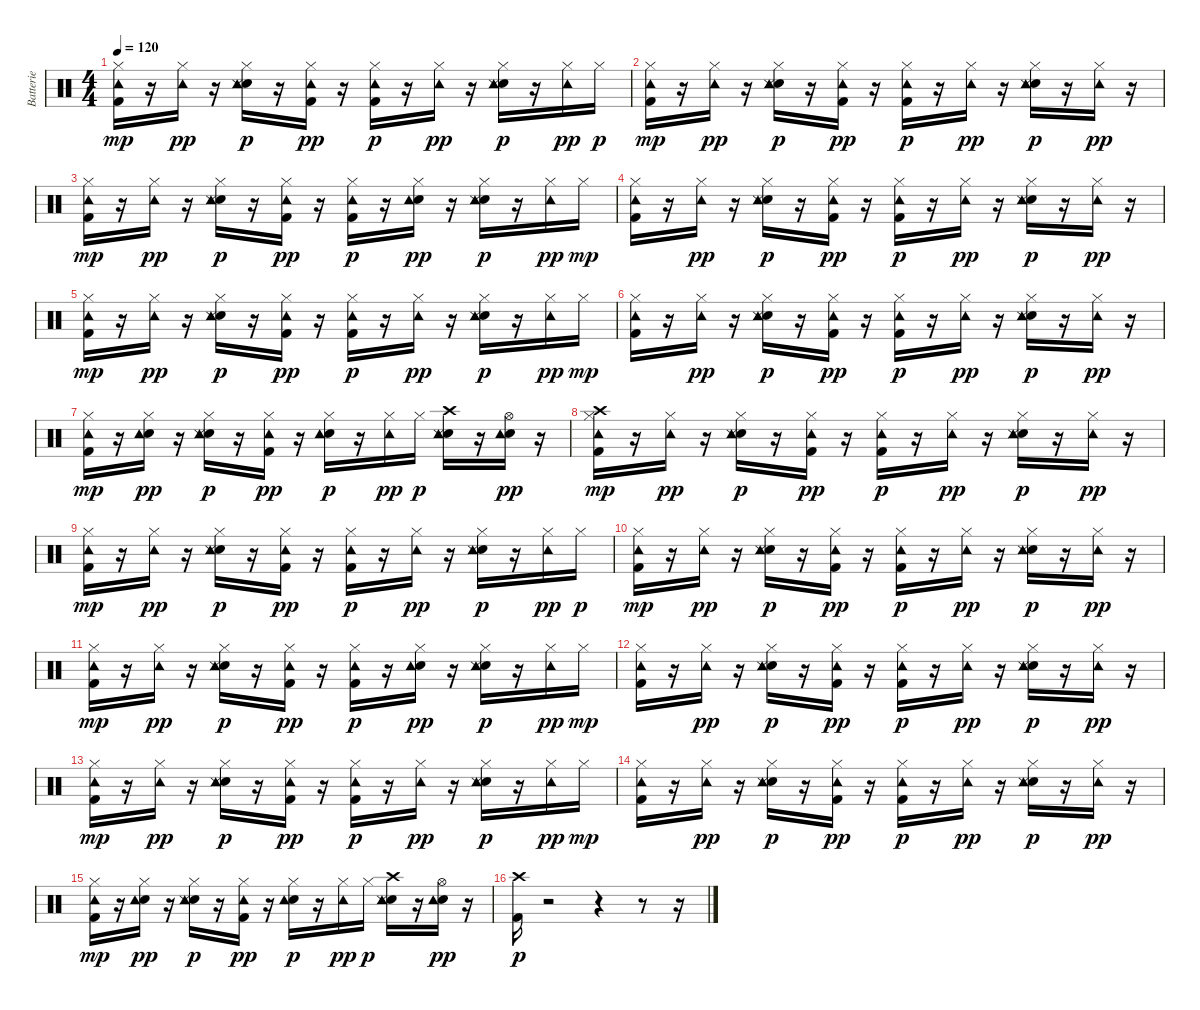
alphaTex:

\track ("Batterie" "Batterie") {instrument percussion}
\staff {score}
\articulation defaults
\ts (4 4)
\tempo 120
\clef neutral
\ks c
("Kick (hit) 2" "Hi-Hat (closed)" "Tambourine (hit)").16{dy mp} r.16 ("Hi-Hat (closed)" "Tambourine (hit)").16{dy pp} r.16 ("Snare (hit) 2" "Hi-Hat (closed)" "Snare (side stick) 3" "Tambourine (hit)").16{dy p} r.16 ("Kick (hit) 2" "Hi-Hat (closed)" "Tambourine (hit)").16{dy pp} r.16 ("Kick (hit) 2" "Hi-Hat (closed)" "Tambourine (hit)").16{dy p} r.16 ("Hi-Hat (closed)" "Tambourine (hit)").16{dy pp} r.16 ("Snare (hit) 2" "Hi-Hat (closed)" "Snare (side stick) 3" "Tambourine (hit)").16{dy p} r.16 ("Hi-Hat (closed)" "Tambourine (hit)").16{dy pp} "Hi-Hat (closed)".16{dy p} |
("Kick (hit) 2" "Hi-Hat (closed)" "Tambourine (hit)").16{dy mp} r.16 ("Hi-Hat (closed)" "Tambourine (hit)").16{dy pp} r.16 ("Snare (hit) 2" "Hi-Hat (closed)" "Snare (side stick) 3" "Tambourine (hit)").16{dy p} r.16 ("Kick (hit) 2" "Hi-Hat (closed)" "Tambourine (hit)").16{dy pp} r.16 ("Kick (hit) 2" "Hi-Hat (closed)" "Tambourine (hit)").16{dy p} r.16 ("Hi-Hat (closed)" "Tambourine (hit)").16{dy pp} r.16 ("Snare (hit) 2" "Hi-Hat (closed)" "Snare (side stick) 3" "Tambourine (hit)").16{dy p} r.16 ("Hi-Hat (closed)" "Tambourine (hit)").16{dy pp} r.16 |
("Kick (hit) 2" "Hi-Hat (closed)" "Tambourine (hit)").16{dy mp} r.16 ("Hi-Hat (closed)" "Tambourine (hit)").16{dy pp} r.16 ("Snare (hit) 2" "Hi-Hat (closed)" "Snare (side stick) 3" "Tambourine (hit)").16{dy p} r.16 ("Kick (hit) 2" "Hi-Hat (closed)" "Tambourine (hit)").16{dy pp} r.16 ("Kick (hit) 2" "Hi-Hat (closed)" "Tambourine (hit)").16{dy p} r.16 ("Snare (hit) 2" "Hi-Hat (closed)" "Tambourine (hit)").16{dy pp} r.16 ("Snare (hit) 2" "Hi-Hat (closed)" "Snare (side stick) 3" "Tambourine (hit)").16{dy p} r.16 ("Hi-Hat (closed)" "Tambourine (hit)").16{dy pp} "Hi-Hat (closed)".16{dy mp} |
("Kick (hit) 2" "Hi-Hat (closed)" "Tambourine (hit)").16 r.16 ("Hi-Hat (closed)" "Tambourine (hit)").16{dy pp} r.16 ("Snare (hit) 2" "Hi-Hat (closed)" "Snare (side stick) 3" "Tambourine (hit)").16{dy p} r.16 ("Kick (hit) 2" "Hi-Hat (closed)" "Tambourine (hit)").16{dy pp} r.16 ("Kick (hit) 2" "Hi-Hat (closed)" "Tambourine (hit)").16{dy p} r.16 ("Hi-Hat (closed)" "Tambourine (hit)").16{dy pp} r.16 ("Snare (hit) 2" "Hi-Hat (closed)" "Snare (side stick) 3" "Tambourine (hit)").16{dy p} r.16 ("Hi-Hat (closed)" "Tambourine (hit)").16{dy pp} r.16 |
("Kick (hit) 2" "Hi-Hat (closed)" "Tambourine (hit)").16{dy mp} r.16 ("Hi-Hat (closed)" "Tambourine (hit)").16{dy pp} r.16 ("Snare (hit) 2" "Hi-Hat (closed)" "Snare (side stick) 3" "Tambourine (hit)").16{dy p} r.16 ("Kick (hit) 2" "Hi-Hat (closed)" "Tambourine (hit)").16{dy pp} r.16 ("Kick (hit) 2" "Hi-Hat (closed)" "Tambourine (hit)").16{dy p} r.16 ("Hi-Hat (closed)" "Tambourine (hit)").16{dy pp} r.16 ("Snare (hit) 2" "Hi-Hat (closed)" "Snare (side stick) 3" "Tambourine (hit)").16{dy p} r.16 ("Hi-Hat (closed)" "Tambourine (hit)").16{dy pp} "Hi-Hat (closed)".16{dy mp} |
("Kick (hit) 2" "Hi-Hat (closed)" "Tambourine (hit)").16 r.16 ("Hi-Hat (closed)" "Tambourine (hit)").16{dy pp} r.16 ("Snare (hit) 2" "Hi-Hat (closed)" "Snare (side stick) 3" "Tambourine (hit)").16{dy p} r.16 ("Kick (hit) 2" "Hi-Hat (closed)" "Tambourine (hit)").16{dy pp} r.16 ("Kick (hit) 2" "Hi-Hat (closed)" "Tambourine (hit)").16{dy p} r.16 ("Hi-Hat (closed)" "Tambourine (hit)").16{dy pp} r.16 ("Snare (hit) 2" "Hi-Hat (closed)" "Snare (side stick) 3" "Tambourine (hit)").16{dy p} r.16 ("Hi-Hat (closed)" "Tambourine (hit)").16{dy pp} r.16 |
("Kick (hit) 2" "Hi-Hat (closed)" "Tambourine (hit)").16{dy mp} r.16 ("Snare (hit) 2" "Hi-Hat (closed)" "Tambourine (hit)").16{dy pp} r.16 ("Snare (hit) 2" "Hi-Hat (closed)" "Snare (side stick) 3" "Tambourine (hit)").16{dy p} r.16 ("Kick (hit) 2" "Hi-Hat (closed)" "Tambourine (hit)").16{dy pp} r.16 ("Snare (hit) 2" "Hi-Hat (closed)" "Tambourine (hit)").16{dy p} r.16 ("Hi-Hat (closed)" "Tambourine (hit)").16{dy pp} "Hi-Hat (closed)".16{dy p} ("Snare (hit) 2" "Crash high (hit)" "Snare (side stick) 3" "Tambourine (hit)").16 r.16 ("Snare (hit) 2" "Hi-Hat (open)" "Tambourine (hit)").16{dy pp} r.16 |
("Kick (hit) 2" "Hi-Hat (closed)" "Crash high (hit)" "Tambourine (hit)").16{dy mp} r.16 ("Hi-Hat (closed)" "Tambourine (hit)").16{dy pp} r.16 ("Snare (hit) 2" "Hi-Hat (closed)" "Snare (side stick) 3" "Tambourine (hit)").16{dy p} r.16 ("Kick (hit) 2" "Hi-Hat (closed)" "Tambourine (hit)").16{dy pp} r.16 ("Kick (hit) 2" "Hi-Hat (closed)" "Tambourine (hit)").16{dy p} r.16 ("Hi-Hat (closed)" "Tambourine (hit)").16{dy pp} r.16 ("Snare (hit) 2" "Hi-Hat (closed)" "Snare (side stick) 3" "Tambourine (hit)").16{dy p} r.16 ("Hi-Hat (closed)" "Tambourine (hit)").16{dy pp} r.16 |
("Kick (hit) 2" "Hi-Hat (closed)" "Tambourine (hit)").16{dy mp} r.16 ("Hi-Hat (closed)" "Tambourine (hit)").16{dy pp} r.16 ("Snare (hit) 2" "Hi-Hat (closed)" "Snare (side stick) 3" "Tambourine (hit)").16{dy p} r.16 ("Kick (hit) 2" "Hi-Hat (closed)" "Tambourine (hit)").16{dy pp} r.16 ("Kick (hit) 2" "Hi-Hat (closed)" "Tambourine (hit)").16{dy p} r.16 ("Hi-Hat (closed)" "Tambourine (hit)").16{dy pp} r.16 ("Snare (hit) 2" "Hi-Hat (closed)" "Snare (side stick) 3" "Tambourine (hit)").16{dy p} r.16 ("Hi-Hat (closed)" "Tambourine (hit)").16{dy pp} "Hi-Hat (closed)".16{dy p} |
("Kick (hit) 2" "Hi-Hat (closed)" "Tambourine (hit)").16{dy mp} r.16 ("Hi-Hat (closed)" "Tambourine (hit)").16{dy pp} r.16 ("Snare (hit) 2" "Hi-Hat (closed)" "Snare (side stick) 3" "Tambourine (hit)").16{dy p} r.16 ("Kick (hit) 2" "Hi-Hat (closed)" "Tambourine (hit)").16{dy pp} r.16 ("Kick (hit) 2" "Hi-Hat (closed)" "Tambourine (hit)").16{dy p} r.16 ("Hi-Hat (closed)" "Tambourine (hit)").16{dy pp} r.16 ("Snare (hit) 2" "Hi-Hat (closed)" "Snare (side stick) 3" "Tambourine (hit)").16{dy p} r.16 ("Hi-Hat (closed)" "Tambourine (hit)").16{dy pp} r.16 |
("Kick (hit) 2" "Hi-Hat (closed)" "Tambourine (hit)").16{dy mp} r.16 ("Hi-Hat (closed)" "Tambourine (hit)").16{dy pp} r.16 ("Snare (hit) 2" "Hi-Hat (closed)" "Snare (side stick) 3" "Tambourine (hit)").16{dy p} r.16 ("Kick (hit) 2" "Hi-Hat (closed)" "Tambourine (hit)").16{dy pp} r.16 ("Kick (hit) 2" "Hi-Hat (closed)" "Tambourine (hit)").16{dy p} r.16 ("Snare (hit) 2" "Hi-Hat (closed)" "Tambourine (hit)").16{dy pp} r.16 ("Snare (hit) 2" "Hi-Hat (closed)" "Snare (side stick) 3" "Tambourine (hit)").16{dy p} r.16 ("Hi-Hat (closed)" "Tambourine (hit)").16{dy pp} "Hi-Hat (closed)".16{dy mp} |
("Kick (hit) 2" "Hi-Hat (closed)" "Tambourine (hit)").16 r.16 ("Hi-Hat (closed)" "Tambourine (hit)").16{dy pp} r.16 ("Snare (hit) 2" "Hi-Hat (closed)" "Snare (side stick) 3" "Tambourine (hit)").16{dy p} r.16 ("Kick (hit) 2" "Hi-Hat (closed)" "Tambourine (hit)").16{dy pp} r.16 ("Kick (hit) 2" "Hi-Hat (closed)" "Tambourine (hit)").16{dy p} r.16 ("Hi-Hat (closed)" "Tambourine (hit)").16{dy pp} r.16 ("Snare (hit) 2" "Hi-Hat (closed)" "Snare (side stick) 3" "Tambourine (hit)").16{dy p} r.16 ("Hi-Hat (closed)" "Tambourine (hit)").16{dy pp} r.16 |
("Kick (hit) 2" "Hi-Hat (closed)" "Tambourine (hit)").16{dy mp} r.16 ("Hi-Hat (closed)" "Tambourine (hit)").16{dy pp} r.16 ("Snare (hit) 2" "Hi-Hat (closed)" "Snare (side stick) 3" "Tambourine (hit)").16{dy p} r.16 ("Kick (hit) 2" "Hi-Hat (closed)" "Tambourine (hit)").16{dy pp} r.16 ("Kick (hit) 2" "Hi-Hat (closed)" "Tambourine (hit)").16{dy p} r.16 ("Hi-Hat (closed)" "Tambourine (hit)").16{dy pp} r.16 ("Snare (hit) 2" "Hi-Hat (closed)" "Snare (side stick) 3" "Tambourine (hit)").16{dy p} r.16 ("Hi-Hat (closed)" "Tambourine (hit)").16{dy pp} "Hi-Hat (closed)".16{dy mp} |
("Kick (hit) 2" "Hi-Hat (closed)" "Tambourine (hit)").16 r.16 ("Hi-Hat (closed)" "Tambourine (hit)").16{dy pp} r.16 ("Snare (hit) 2" "Hi-Hat (closed)" "Snare (side stick) 3" "Tambourine (hit)").16{dy p} r.16 ("Kick (hit) 2" "Hi-Hat (closed)" "Tambourine (hit)").16{dy pp} r.16 ("Kick (hit) 2" "Hi-Hat (closed)" "Tambourine (hit)").16{dy p} r.16 ("Hi-Hat (closed)" "Tambourine (hit)").16{dy pp} r.16 ("Snare (hit) 2" "Hi-Hat (closed)" "Snare (side stick) 3" "Tambourine (hit)").16{dy p} r.16 ("Hi-Hat (closed)" "Tambourine (hit)").16{dy pp} r.16 |
("Kick (hit) 2" "Hi-Hat (closed)" "Tambourine (hit)").16{dy mp} r.16 ("Snare (hit) 2" "Hi-Hat (closed)" "Tambourine (hit)").16{dy pp} r.16 ("Snare (hit) 2" "Hi-Hat (closed)" "Snare (side stick) 3" "Tambourine (hit)").16{dy p} r.16 ("Kick (hit) 2" "Hi-Hat (closed)" "Tambourine (hit)").16{dy pp} r.16 ("Snare (hit) 2" "Hi-Hat (closed)" "Tambourine (hit)").16{dy p} r.16 ("Hi-Hat (closed)" "Tambourine (hit)").16{dy pp} "Hi-Hat (closed)".16{dy p} ("Snare (hit) 2" "Crash high (hit)" "Snare (side stick) 3" "Tambourine (hit)").16 r.16 ("Snare (hit) 2" "Hi-Hat (open)" "Tambourine (hit)").16{dy pp} r.16 |
("Kick (hit) 2" "Crash high (hit)").16{dy p} r.2 r.4 r.8 r.16
